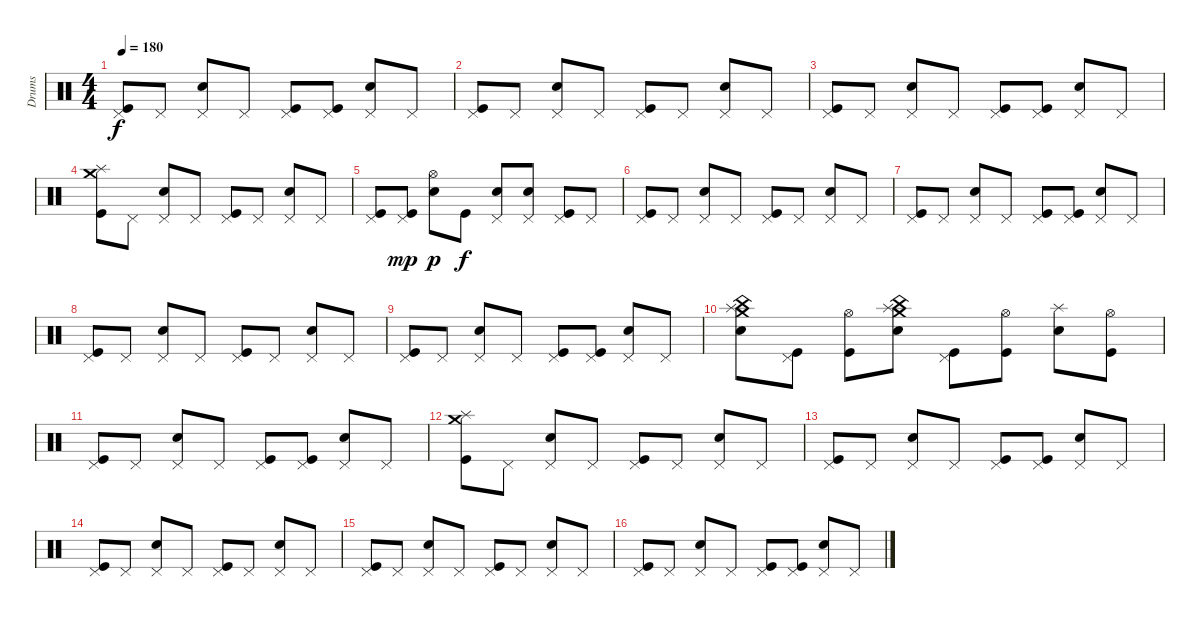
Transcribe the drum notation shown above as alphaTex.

\track ("Drums" "Drums") {instrument percussion}
\staff {score}
\articulation defaults
\ts (4 4)
\tempo 180
\clef neutral
\ks c
("Pedal Hi-Hat (hit)" "Kick (hit)").8{dy f} "Pedal Hi-Hat (hit)".8 ("Pedal Hi-Hat (hit)" "Snare (hit) 2").8 "Pedal Hi-Hat (hit)".8 ("Pedal Hi-Hat (hit)" "Kick (hit)").8 ("Pedal Hi-Hat (hit)" "Kick (hit)").8 ("Pedal Hi-Hat (hit)" "Snare (hit) 2").8 "Pedal Hi-Hat (hit)".8 |
("Pedal Hi-Hat (hit)" "Kick (hit)").8 "Pedal Hi-Hat (hit)".8 ("Pedal Hi-Hat (hit)" "Snare (hit) 2").8 "Pedal Hi-Hat (hit)".8 ("Pedal Hi-Hat (hit)" "Kick (hit)").8 "Pedal Hi-Hat (hit)".8 ("Pedal Hi-Hat (hit)" "Snare (hit) 2").8 "Pedal Hi-Hat (hit)".8 |
("Pedal Hi-Hat (hit)" "Kick (hit)").8 "Pedal Hi-Hat (hit)".8 ("Pedal Hi-Hat (hit)" "Snare (hit) 2").8 "Pedal Hi-Hat (hit)".8 ("Pedal Hi-Hat (hit)" "Kick (hit)").8 ("Pedal Hi-Hat (hit)" "Kick (hit)").8 ("Pedal Hi-Hat (hit)" "Snare (hit) 2").8 "Pedal Hi-Hat (hit)".8 |
("Splash (hit)" "Crash medium (hit)" "Kick (hit)").8 "Pedal Hi-Hat (hit)".8 ("Pedal Hi-Hat (hit)" "Snare (hit) 2").8 "Pedal Hi-Hat (hit)".8 ("Pedal Hi-Hat (hit)" "Kick (hit)").8 "Pedal Hi-Hat (hit)".8 ("Pedal Hi-Hat (hit)" "Snare (hit) 2").8 "Pedal Hi-Hat (hit)".8 |
("Pedal Hi-Hat (hit)" "Kick (hit)").8 ("Pedal Hi-Hat (hit)" "Kick (hit)").8{dy mp} ("Hi-Hat (open)" "Snare (hit) 2").8{dy p} "Kick (hit)".8{dy f} ("Pedal Hi-Hat (hit)" "Snare (hit) 2").8 ("Pedal Hi-Hat (hit)" "Snare (hit) 2").8 ("Pedal Hi-Hat (hit)" "Kick (hit)").8 "Pedal Hi-Hat (hit)".8 |
("Pedal Hi-Hat (hit)" "Kick (hit)").8 "Pedal Hi-Hat (hit)".8 ("Pedal Hi-Hat (hit)" "Snare (hit) 2").8 "Pedal Hi-Hat (hit)".8 ("Pedal Hi-Hat (hit)" "Kick (hit)").8 "Pedal Hi-Hat (hit)".8 ("Pedal Hi-Hat (hit)" "Snare (hit) 2").8 "Pedal Hi-Hat (hit)".8 |
("Pedal Hi-Hat (hit)" "Kick (hit)").8 "Pedal Hi-Hat (hit)".8 ("Pedal Hi-Hat (hit)" "Snare (hit) 2").8 "Pedal Hi-Hat (hit)".8 ("Pedal Hi-Hat (hit)" "Kick (hit)").8 ("Pedal Hi-Hat (hit)" "Kick (hit)").8 ("Pedal Hi-Hat (hit)" "Snare (hit) 2").8 "Pedal Hi-Hat (hit)".8 |
("Pedal Hi-Hat (hit)" "Kick (hit)").8 "Pedal Hi-Hat (hit)".8 ("Pedal Hi-Hat (hit)" "Snare (hit) 2").8 "Pedal Hi-Hat (hit)".8 ("Pedal Hi-Hat (hit)" "Kick (hit)").8 "Pedal Hi-Hat (hit)".8 ("Pedal Hi-Hat (hit)" "Snare (hit) 2").8 "Pedal Hi-Hat (hit)".8 |
("Pedal Hi-Hat (hit)" "Kick (hit)").8 "Pedal Hi-Hat (hit)".8 ("Pedal Hi-Hat (hit)" "Snare (hit) 2").8 "Pedal Hi-Hat (hit)".8 ("Pedal Hi-Hat (hit)" "Kick (hit)").8 ("Pedal Hi-Hat (hit)" "Kick (hit)").8 ("Pedal Hi-Hat (hit)" "Snare (hit) 2").8 "Pedal Hi-Hat (hit)".8 |
("Splash (hit)" "China (hit)" "Crash medium (hit)" "Snare (hit) 2").8 ("Pedal Hi-Hat (hit)" "Kick (hit)").8 ("Hi-Hat (open)" "Kick (hit)").8 ("China (hit)" "Splash (hit)" "Crash medium (hit)" "Snare (hit) 2").8 ("Pedal Hi-Hat (hit)" "Kick (hit)").8 ("Hi-Hat (open)" "Kick (hit)").8 ("Splash (hit)" "Snare (hit) 2").8 ("Hi-Hat (open)" "Kick (hit)").8 |
("Pedal Hi-Hat (hit)" "Kick (hit)").8 "Pedal Hi-Hat (hit)".8 ("Pedal Hi-Hat (hit)" "Snare (hit) 2").8 "Pedal Hi-Hat (hit)".8 ("Pedal Hi-Hat (hit)" "Kick (hit)").8 ("Pedal Hi-Hat (hit)" "Kick (hit)").8 ("Pedal Hi-Hat (hit)" "Snare (hit) 2").8 "Pedal Hi-Hat (hit)".8 |
("Splash (hit)" "Crash medium (hit)" "Kick (hit)").8 "Pedal Hi-Hat (hit)".8 ("Pedal Hi-Hat (hit)" "Snare (hit) 2").8 "Pedal Hi-Hat (hit)".8 ("Pedal Hi-Hat (hit)" "Kick (hit)").8 "Pedal Hi-Hat (hit)".8 ("Pedal Hi-Hat (hit)" "Snare (hit) 2").8 "Pedal Hi-Hat (hit)".8 |
("Pedal Hi-Hat (hit)" "Kick (hit)").8 "Pedal Hi-Hat (hit)".8 ("Pedal Hi-Hat (hit)" "Snare (hit) 2").8 "Pedal Hi-Hat (hit)".8 ("Pedal Hi-Hat (hit)" "Kick (hit)").8 ("Pedal Hi-Hat (hit)" "Kick (hit)").8 ("Pedal Hi-Hat (hit)" "Snare (hit) 2").8 "Pedal Hi-Hat (hit)".8 |
("Pedal Hi-Hat (hit)" "Kick (hit)").8 "Pedal Hi-Hat (hit)".8 ("Pedal Hi-Hat (hit)" "Snare (hit) 2").8 "Pedal Hi-Hat (hit)".8 ("Pedal Hi-Hat (hit)" "Kick (hit)").8 "Pedal Hi-Hat (hit)".8 ("Pedal Hi-Hat (hit)" "Snare (hit) 2").8 "Pedal Hi-Hat (hit)".8 |
("Pedal Hi-Hat (hit)" "Kick (hit)").8 "Pedal Hi-Hat (hit)".8 ("Pedal Hi-Hat (hit)" "Snare (hit) 2").8 "Pedal Hi-Hat (hit)".8 ("Pedal Hi-Hat (hit)" "Kick (hit)").8 "Pedal Hi-Hat (hit)".8 ("Pedal Hi-Hat (hit)" "Snare (hit) 2").8 "Pedal Hi-Hat (hit)".8 |
("Pedal Hi-Hat (hit)" "Kick (hit)").8 "Pedal Hi-Hat (hit)".8 ("Pedal Hi-Hat (hit)" "Snare (hit) 2").8 "Pedal Hi-Hat (hit)".8 ("Pedal Hi-Hat (hit)" "Kick (hit)").8 ("Pedal Hi-Hat (hit)" "Kick (hit)").8 ("Pedal Hi-Hat (hit)" "Snare (hit) 2").8 "Pedal Hi-Hat (hit)".8
